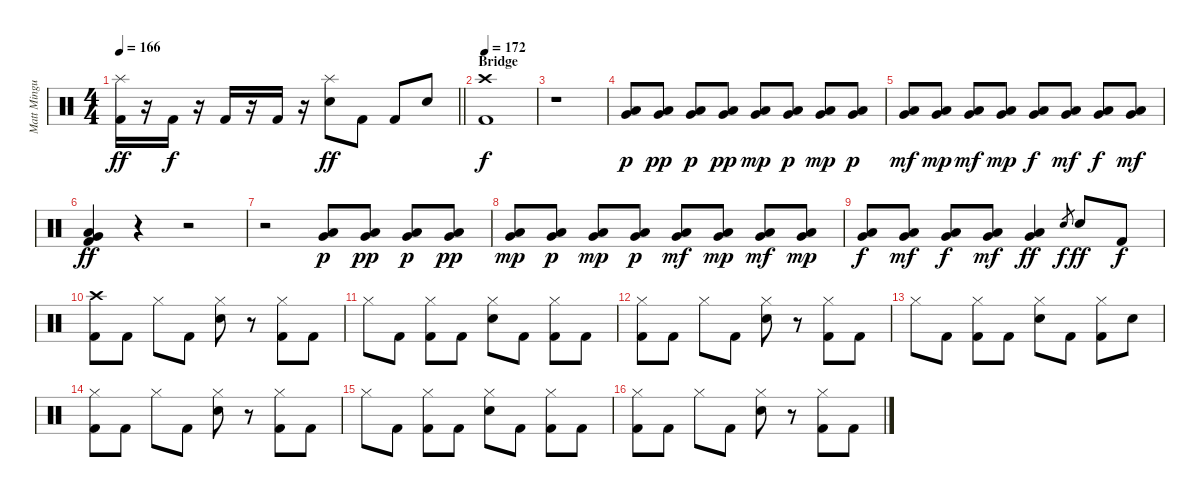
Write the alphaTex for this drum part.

\track ("Matt Mingus (Drum Kit)" "Matt Mingu") {instrument percussion}
\staff {score}
\articulation defaults
\ts (4 4)
\tempo 166
\clef neutral
\barLineRight lightlight
\ks c
("Splash (hit)" "Kick (hit) 2").16{dy ff} r.16 "Kick (hit) 2".16{dy f} r.16 "Kick (hit) 2".16 r.16 "Kick (hit) 2".16 r.16 ("Splash (hit)" "Electric Snare (hit)").8{dy ff} "Kick (hit) 2".8 "Kick (hit) 2".8 "Electric Snare (hit)".8 |
\section ("" "Bridge")
\tempo 172
("Crash high (hit)" "Kick (hit) 2").1{dy f} |
r.1 |
("Very Low Tom (hit)" "Low Floor Tom (hit)").8{dy p} ("Very Low Tom (hit)" "Low Floor Tom (hit)").8{dy pp} ("Very Low Tom (hit)" "Low Floor Tom (hit)").8{dy p} ("Very Low Tom (hit)" "Low Floor Tom (hit)").8{dy pp} ("Very Low Tom (hit)" "Low Floor Tom (hit)").8{dy mp} ("Very Low Tom (hit)" "Low Floor Tom (hit)").8{dy p} ("Very Low Tom (hit)" "Low Floor Tom (hit)").8{dy mp} ("Very Low Tom (hit)" "Low Floor Tom (hit)").8{dy p} |
("Very Low Tom (hit)" "Low Floor Tom (hit)").8{dy mf} ("Very Low Tom (hit)" "Low Floor Tom (hit)").8{dy mp} ("Very Low Tom (hit)" "Low Floor Tom (hit)").8{dy mf} ("Very Low Tom (hit)" "Low Floor Tom (hit)").8{dy mp} ("Very Low Tom (hit)" "Low Floor Tom (hit)").8{dy f} ("Very Low Tom (hit)" "Low Floor Tom (hit)").8{dy mf} ("Very Low Tom (hit)" "Low Floor Tom (hit)").8{dy f} ("Very Low Tom (hit)" "Low Floor Tom (hit)").8{dy mf} |
("Very Low Tom (hit)" "Low Floor Tom (hit)" "Kick (hit) 2").4{dy ff} r.4 r.2 |
r.2 ("Very Low Tom (hit)" "Low Floor Tom (hit)").8{dy p} ("Very Low Tom (hit)" "Low Floor Tom (hit)").8{dy pp} ("Very Low Tom (hit)" "Low Floor Tom (hit)").8{dy p} ("Very Low Tom (hit)" "Low Floor Tom (hit)").8{dy pp} |
("Very Low Tom (hit)" "Low Floor Tom (hit)").8{dy mp} ("Very Low Tom (hit)" "Low Floor Tom (hit)").8{dy p} ("Very Low Tom (hit)" "Low Floor Tom (hit)").8{dy mp} ("Very Low Tom (hit)" "Low Floor Tom (hit)").8{dy p} ("Very Low Tom (hit)" "Low Floor Tom (hit)").8{dy mf} ("Very Low Tom (hit)" "Low Floor Tom (hit)").8{dy mp} ("Very Low Tom (hit)" "Low Floor Tom (hit)").8{dy mf} ("Very Low Tom (hit)" "Low Floor Tom (hit)").8{dy mp} |
("Very Low Tom (hit)" "Low Floor Tom (hit)").8{dy f} ("Very Low Tom (hit)" "Low Floor Tom (hit)").8{dy mf} ("Very Low Tom (hit)" "Low Floor Tom (hit)").8{dy f} ("Very Low Tom (hit)" "Low Floor Tom (hit)").8{dy mf} ("Very Low Tom (hit)" "Low Floor Tom (hit)").4{dy ff} "Electric Snare (hit)".8{gr dy f} "Electric Snare (hit)".8{dy ff} "Kick (hit) 2".8{dy f} |
("Crash high (hit)" "Kick (hit) 2").8 "Kick (hit) 2".8 "Hi-Hat (closed)".8 "Kick (hit) 2".8 ("Hi-Hat (closed)" "Electric Snare (hit)").8 r.8 ("Hi-Hat (closed)" "Kick (hit) 2").8 "Kick (hit) 2".8 |
"Hi-Hat (closed)".8 "Kick (hit) 2".8 ("Hi-Hat (closed)" "Kick (hit) 2").8 "Kick (hit) 2".8 ("Hi-Hat (closed)" "Electric Snare (hit)").8 "Kick (hit) 2".8 ("Hi-Hat (closed)" "Kick (hit) 2").8 "Kick (hit) 2".8 |
("Hi-Hat (closed)" "Kick (hit) 2").8 "Kick (hit) 2".8 "Hi-Hat (closed)".8 "Kick (hit) 2".8 ("Hi-Hat (closed)" "Electric Snare (hit)").8 r.8 ("Hi-Hat (closed)" "Kick (hit) 2").8 "Kick (hit) 2".8 |
"Hi-Hat (closed)".8 "Kick (hit) 2".8 ("Hi-Hat (closed)" "Kick (hit) 2").8 "Kick (hit) 2".8 ("Hi-Hat (closed)" "Electric Snare (hit)").8 "Kick (hit) 2".8 ("Hi-Hat (closed)" "Kick (hit) 2").8 "Electric Snare (hit)".8 |
("Hi-Hat (closed)" "Kick (hit) 2").8 "Kick (hit) 2".8 "Hi-Hat (closed)".8 "Kick (hit) 2".8 ("Hi-Hat (closed)" "Electric Snare (hit)").8 r.8 ("Hi-Hat (closed)" "Kick (hit) 2").8 "Kick (hit) 2".8 |
"Hi-Hat (closed)".8 "Kick (hit) 2".8 ("Hi-Hat (closed)" "Kick (hit) 2").8 "Kick (hit) 2".8 ("Hi-Hat (closed)" "Electric Snare (hit)").8 "Kick (hit) 2".8 ("Hi-Hat (closed)" "Kick (hit) 2").8 "Kick (hit) 2".8 |
("Hi-Hat (closed)" "Kick (hit) 2").8 "Kick (hit) 2".8 "Hi-Hat (closed)".8 "Kick (hit) 2".8 ("Hi-Hat (closed)" "Electric Snare (hit)").8 r.8 ("Hi-Hat (closed)" "Kick (hit) 2").8 "Kick (hit) 2".8
